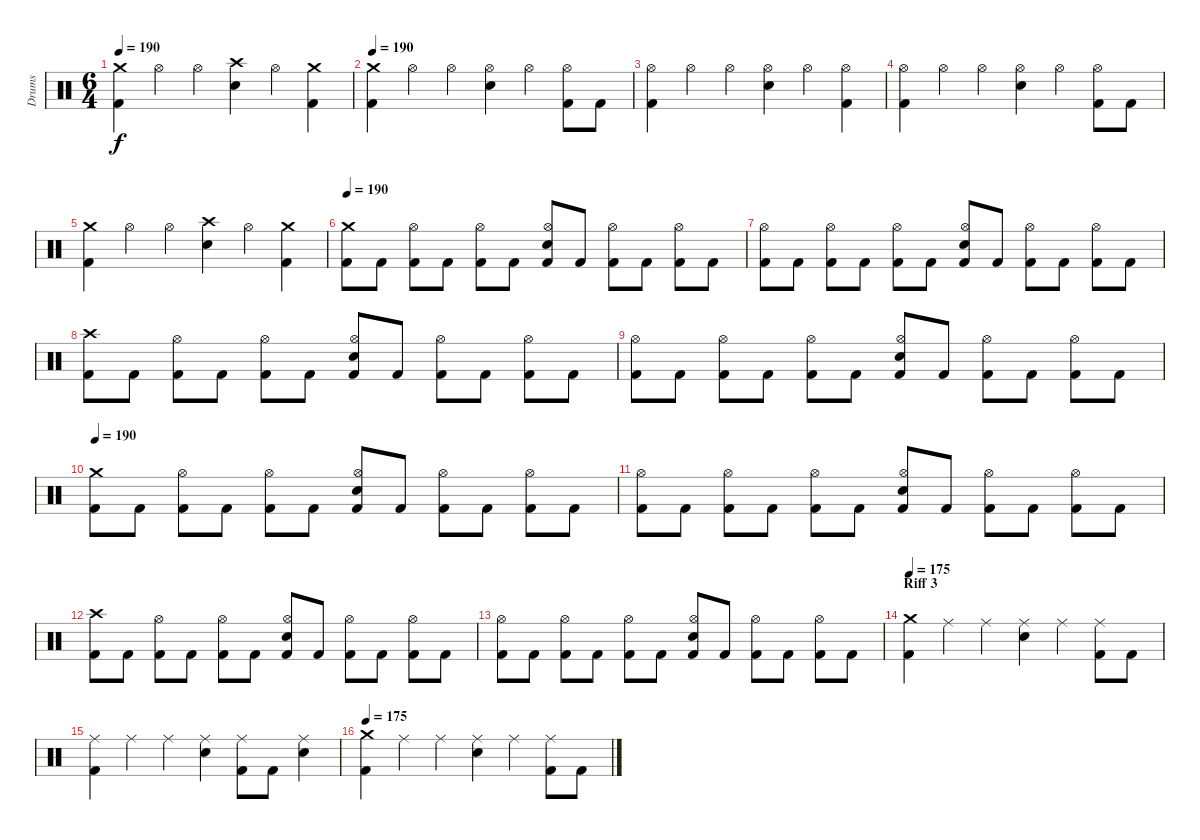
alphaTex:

\track ("Drums" "Drums") {instrument percussion}
\staff {score}
\articulation defaults
\ts (6 4)
\tempo 190
\clef neutral
\ks c
("Crash medium (hit)" "Kick (hit) 2").4{dy f} "Hi-Hat (open)".4 "Hi-Hat (open)".4 ("Crash high (hit)" "Electric Snare (hit)").4 "Hi-Hat (open)".4 ("Crash medium (hit)" "Kick (hit) 2").4 |
\tempo 190
("Crash medium (hit)" "Kick (hit) 2").4 "Hi-Hat (open)".4 "Hi-Hat (open)".4 ("Hi-Hat (open)" "Electric Snare (hit)").4 "Hi-Hat (open)".4 ("Hi-Hat (open)" "Kick (hit) 2").8 "Kick (hit) 2".8 |
("Hi-Hat (open)" "Kick (hit) 2").4 "Hi-Hat (open)".4 "Hi-Hat (open)".4 ("Hi-Hat (open)" "Electric Snare (hit)").4 "Hi-Hat (open)".4 ("Hi-Hat (open)" "Kick (hit) 2").4 |
("Hi-Hat (open)" "Kick (hit) 2").4 "Hi-Hat (open)".4 "Hi-Hat (open)".4 ("Hi-Hat (open)" "Electric Snare (hit)").4 "Hi-Hat (open)".4 ("Hi-Hat (open)" "Kick (hit) 2").8 "Kick (hit) 2".8 |
("Crash medium (hit)" "Kick (hit) 2").4 "Hi-Hat (open)".4 "Hi-Hat (open)".4 ("Crash high (hit)" "Electric Snare (hit)").4 "Hi-Hat (open)".4 ("Crash medium (hit)" "Kick (hit) 2").4 |
\tempo 190
("Crash medium (hit)" "Kick (hit) 2").8 "Kick (hit) 2".8 ("Hi-Hat (open)" "Kick (hit) 2").8 "Kick (hit) 2".8 ("Hi-Hat (open)" "Kick (hit) 2").8 "Kick (hit) 2".8 ("Hi-Hat (open)" "Electric Snare (hit)" "Kick (hit) 2").8 "Kick (hit) 2".8 ("Hi-Hat (open)" "Kick (hit) 2").8 "Kick (hit) 2".8 ("Hi-Hat (open)" "Kick (hit) 2").8 "Kick (hit) 2".8 |
("Hi-Hat (open)" "Kick (hit) 2").8 "Kick (hit) 2".8 ("Hi-Hat (open)" "Kick (hit) 2").8 "Kick (hit) 2".8 ("Hi-Hat (open)" "Kick (hit) 2").8 "Kick (hit) 2".8 ("Hi-Hat (open)" "Electric Snare (hit)" "Kick (hit) 2").8 "Kick (hit) 2".8 ("Hi-Hat (open)" "Kick (hit) 2").8 "Kick (hit) 2".8 ("Hi-Hat (open)" "Kick (hit) 2").8 "Kick (hit) 2".8 |
("Crash high (hit)" "Kick (hit) 2").8 "Kick (hit) 2".8 ("Hi-Hat (open)" "Kick (hit) 2").8 "Kick (hit) 2".8 ("Hi-Hat (open)" "Kick (hit) 2").8 "Kick (hit) 2".8 ("Hi-Hat (open)" "Electric Snare (hit)" "Kick (hit) 2").8 "Kick (hit) 2".8 ("Hi-Hat (open)" "Kick (hit) 2").8 "Kick (hit) 2".8 ("Hi-Hat (open)" "Kick (hit) 2").8 "Kick (hit) 2".8 |
("Hi-Hat (open)" "Kick (hit) 2").8 "Kick (hit) 2".8 ("Hi-Hat (open)" "Kick (hit) 2").8 "Kick (hit) 2".8 ("Hi-Hat (open)" "Kick (hit) 2").8 "Kick (hit) 2".8 ("Hi-Hat (open)" "Electric Snare (hit)" "Kick (hit) 2").8 "Kick (hit) 2".8 ("Hi-Hat (open)" "Kick (hit) 2").8 "Kick (hit) 2".8 ("Hi-Hat (open)" "Kick (hit) 2").8 "Kick (hit) 2".8 |
\tempo 190
("Crash medium (hit)" "Kick (hit) 2").8 "Kick (hit) 2".8 ("Hi-Hat (open)" "Kick (hit) 2").8 "Kick (hit) 2".8 ("Hi-Hat (open)" "Kick (hit) 2").8 "Kick (hit) 2".8 ("Hi-Hat (open)" "Electric Snare (hit)" "Kick (hit) 2").8 "Kick (hit) 2".8 ("Hi-Hat (open)" "Kick (hit) 2").8 "Kick (hit) 2".8 ("Hi-Hat (open)" "Kick (hit) 2").8 "Kick (hit) 2".8 |
("Hi-Hat (open)" "Kick (hit) 2").8 "Kick (hit) 2".8 ("Hi-Hat (open)" "Kick (hit) 2").8 "Kick (hit) 2".8 ("Hi-Hat (open)" "Kick (hit) 2").8 "Kick (hit) 2".8 ("Hi-Hat (open)" "Electric Snare (hit)" "Kick (hit) 2").8 "Kick (hit) 2".8 ("Hi-Hat (open)" "Kick (hit) 2").8 "Kick (hit) 2".8 ("Hi-Hat (open)" "Kick (hit) 2").8 "Kick (hit) 2".8 |
("Crash high (hit)" "Kick (hit) 2").8 "Kick (hit) 2".8 ("Hi-Hat (open)" "Kick (hit) 2").8 "Kick (hit) 2".8 ("Hi-Hat (open)" "Kick (hit) 2").8 "Kick (hit) 2".8 ("Hi-Hat (open)" "Electric Snare (hit)" "Kick (hit) 2").8 "Kick (hit) 2".8 ("Hi-Hat (open)" "Kick (hit) 2").8 "Kick (hit) 2".8 ("Hi-Hat (open)" "Kick (hit) 2").8 "Kick (hit) 2".8 |
("Hi-Hat (open)" "Kick (hit) 2").8 "Kick (hit) 2".8 ("Hi-Hat (open)" "Kick (hit) 2").8 "Kick (hit) 2".8 ("Hi-Hat (open)" "Kick (hit) 2").8 "Kick (hit) 2".8 ("Hi-Hat (open)" "Electric Snare (hit)" "Kick (hit) 2").8 "Kick (hit) 2".8 ("Hi-Hat (open)" "Kick (hit) 2").8 "Kick (hit) 2".8 ("Hi-Hat (open)" "Kick (hit) 2").8 "Kick (hit) 2".8 |
\section ("" "Riff 3")
\tempo 175
("Crash medium (hit)" "Kick (hit) 2").4 "Ride (middle)".4 "Ride (middle)".4 ("Ride (middle)" "Electric Snare (hit)").4 "Ride (middle)".4 ("Ride (middle)" "Kick (hit) 2").8 "Kick (hit) 2".8 |
("Ride (middle)" "Kick (hit) 2").4 "Ride (middle)".4 "Ride (middle)".4 ("Ride (middle)" "Electric Snare (hit)").4 ("Ride (middle)" "Kick (hit) 2").8 "Kick (hit) 2".8 ("Ride (middle)" "Electric Snare (hit)").4 |
\tempo 175
("Crash medium (hit)" "Kick (hit) 2").4 "Ride (middle)".4 "Ride (middle)".4 ("Ride (middle)" "Electric Snare (hit)").4 "Ride (middle)".4 ("Ride (middle)" "Kick (hit) 2").8 "Kick (hit) 2".8
